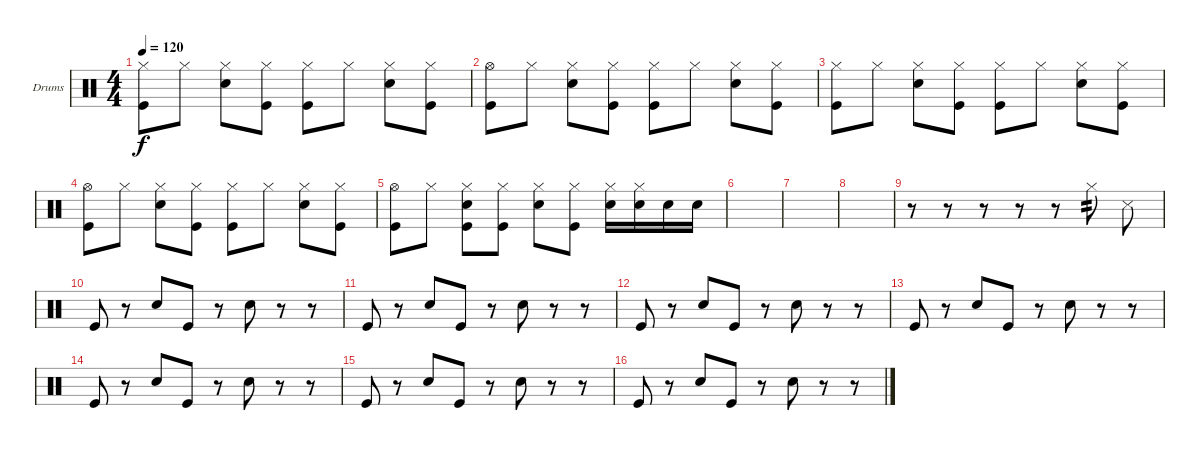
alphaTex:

\defaultSystemsLayout 4
\bracketExtendMode groupsimilarinstruments
\firstSystemTrackNameOrientation horizontal
\otherSystemsTrackNameOrientation horizontal
\track ("Drumkit" "Drums") {instrument percussion}
\staff {score}
\articulation defaults
\ts (4 4)
\tempo 120
\clef neutral
\ks c
("Kick (hit)" "Hi-Hat (closed)").8{dy f} "Hi-Hat (closed)".8 ("Snare (hit) 2" "Hi-Hat (closed)").8 ("Kick (hit)" "Hi-Hat (closed)").8 ("Kick (hit)" "Hi-Hat (closed)").8 "Hi-Hat (closed)".8 ("Snare (hit) 2" "Hi-Hat (closed)").8 ("Kick (hit)" "Hi-Hat (closed)").8 |
("Kick (hit)" "Hi-Hat (open)").8 "Hi-Hat (closed)".8 ("Snare (hit) 2" "Hi-Hat (closed)").8 ("Kick (hit)" "Hi-Hat (closed)").8 ("Kick (hit)" "Hi-Hat (closed)").8 "Hi-Hat (closed)".8 ("Snare (hit) 2" "Hi-Hat (closed)").8 ("Kick (hit)" "Hi-Hat (closed)").8 |
("Kick (hit)" "Hi-Hat (closed)").8 "Hi-Hat (closed)".8 ("Snare (hit) 2" "Hi-Hat (closed)").8 ("Kick (hit)" "Hi-Hat (closed)").8 ("Kick (hit)" "Hi-Hat (closed)").8 "Hi-Hat (closed)".8 ("Snare (hit) 2" "Hi-Hat (closed)").8 ("Kick (hit)" "Hi-Hat (closed)").8 |
("Kick (hit)" "Hi-Hat (open)").8 "Hi-Hat (closed)".8 ("Snare (hit) 2" "Hi-Hat (closed)").8 ("Kick (hit)" "Hi-Hat (closed)").8 ("Kick (hit)" "Hi-Hat (closed)").8 "Hi-Hat (closed)".8 ("Snare (hit) 2" "Hi-Hat (closed)").8 ("Kick (hit)" "Hi-Hat (closed)").8 |
("Kick (hit)" "Hi-Hat (open)").8 "Hi-Hat (closed)".8 ("Hi-Hat (closed)" "Kick (hit)" "Snare (hit) 2").8 ("Kick (hit)" "Hi-Hat (closed)").8 ("Snare (hit) 2" "Hi-Hat (closed)").8 ("Kick (hit)" "Hi-Hat (closed)").8 ("Snare (hit) 2" "Hi-Hat (closed)").16 ("Hi-Hat (closed)" "Snare (hit) 2").16 "Snare (hit) 2".16 "Snare (hit) 2".16 |
|
|
|
r.8 r.8 r.8 r.8 r.8 "Hi-Hat (closed)".8{tp 2} "Snare (side stick) 3".8 |
"Kick (hit)".8 r.8 "Snare (hit) 2".8 "Kick (hit)".8 r.8 "Snare (hit) 2".8 r.8 r.8 |
"Kick (hit)".8 r.8 "Snare (hit) 2".8 "Kick (hit)".8 r.8 "Snare (hit) 2".8 r.8 r.8 |
"Kick (hit)".8 r.8 "Snare (hit) 2".8 "Kick (hit)".8 r.8 "Snare (hit) 2".8 r.8 r.8 |
"Kick (hit)".8 r.8 "Snare (hit) 2".8 "Kick (hit)".8 r.8 "Snare (hit) 2".8 r.8 r.8 |
"Kick (hit)".8 r.8 "Snare (hit) 2".8 "Kick (hit)".8 r.8 "Snare (hit) 2".8 r.8 r.8 |
"Kick (hit)".8 r.8 "Snare (hit) 2".8 "Kick (hit)".8 r.8 "Snare (hit) 2".8 r.8 r.8 |
"Kick (hit)".8 r.8 "Snare (hit) 2".8 "Kick (hit)".8 r.8 "Snare (hit) 2".8 r.8 r.8
